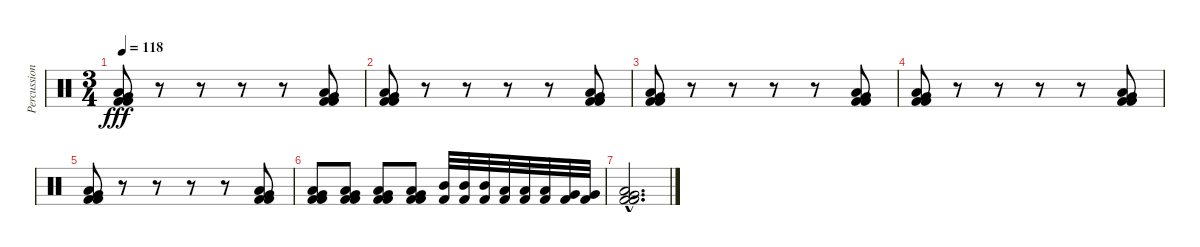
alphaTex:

\track ("Percussion" "Percussion") {instrument percussion}
\staff {score}
\articulation defaults
\ts (3 4)
\tempo 118
\clef neutral
\ks c
("Kick (hit) 2" "Very Low Tom (hit)" "Low Tom (hit)" "Kick (hit) 2").8{dy fff} r.8 r.8 r.8 r.8 ("Kick (hit) 2" "Very Low Tom (hit)" "Low Tom (hit)" "Kick (hit) 2").8 |
("Kick (hit) 2" "Very Low Tom (hit)" "Low Tom (hit)" "Kick (hit) 2").8 r.8 r.8 r.8 r.8 ("Kick (hit) 2" "Very Low Tom (hit)" "Low Tom (hit)" "Kick (hit) 2").8 |
("Kick (hit) 2" "Very Low Tom (hit)" "Low Tom (hit)" "Kick (hit) 2").8 r.8 r.8 r.8 r.8 ("Kick (hit) 2" "Very Low Tom (hit)" "Low Tom (hit)" "Kick (hit) 2").8 |
("Kick (hit) 2" "Very Low Tom (hit)" "Low Tom (hit)" "Kick (hit) 2").8 r.8 r.8 r.8 r.8 ("Kick (hit) 2" "Very Low Tom (hit)" "Low Tom (hit)" "Kick (hit) 2").8 |
("Kick (hit) 2" "Very Low Tom (hit)" "Low Tom (hit)" "Kick (hit) 2").8 r.8 r.8 r.8 r.8 ("Kick (hit) 2" "Very Low Tom (hit)" "Low Tom (hit)" "Kick (hit) 2").8 |
("Kick (hit) 2" "Very Low Tom (hit)" "Low Tom (hit)" "Kick (hit) 2").8 ("Kick (hit) 2" "Very Low Tom (hit)" "Low Tom (hit)" "Kick (hit) 2").8 ("Kick (hit) 2" "Very Low Tom (hit)" "Low Tom (hit)" "Kick (hit) 2").8 ("Kick (hit) 2" "Very Low Tom (hit)" "Low Tom (hit)" "Kick (hit) 2").8 ("Mid Tom (hit)" "Kick (hit) 2").32 ("Mid Tom (hit)" "Kick (hit) 2").32 ("Mid Tom (hit)" "Kick (hit) 2").32 ("Low Tom (hit)" "Kick (hit) 2").32 ("Low Tom (hit)" "Kick (hit) 2").32 ("Low Tom (hit)" "Kick (hit) 2").32 ("Very Low Tom (hit)" "Kick (hit) 2").32 ("Very Low Tom (hit)" "Kick (hit) 2").32 |
("Kick (hit) 2"{hac} "Very Low Tom (hit)"{hac} "Low Tom (hit)"{hac} "Kick (hit) 2"{hac}).2{d}
